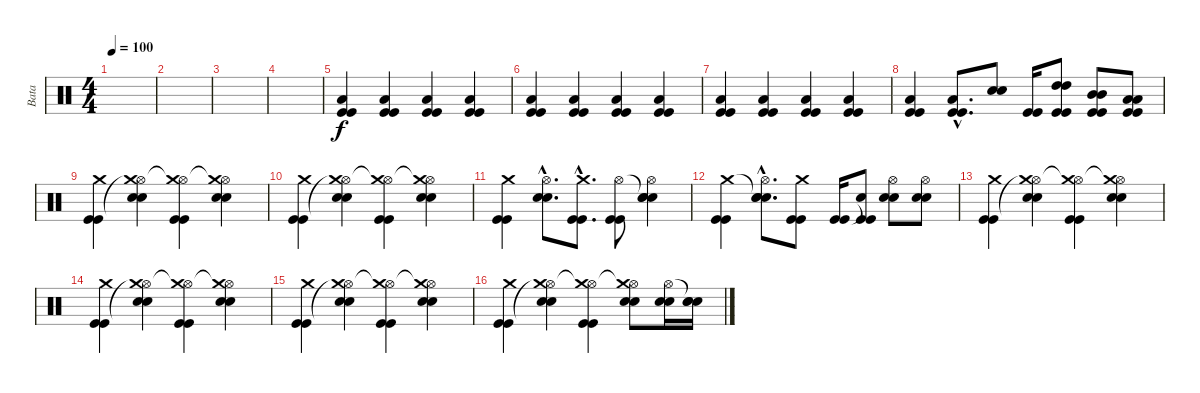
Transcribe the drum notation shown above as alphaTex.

\track ("Bata" "Bata") {instrument percussion}
\staff {score}
\articulation defaults
\ts (4 4)
\tempo 100
\clef neutral
\ks c
|
|
|
|
("Low Floor Tom (hit)" "Kick (hit)" "Kick (hit)").4 ("Low Floor Tom (hit)" "Kick (hit)" "Kick (hit)").4 ("Low Floor Tom (hit)" "Kick (hit)" "Kick (hit)").4 ("Low Floor Tom (hit)" "Kick (hit)" "Kick (hit)").4 |
("Low Floor Tom (hit)" "Kick (hit)" "Kick (hit)").4 ("Low Floor Tom (hit)" "Kick (hit)" "Kick (hit)").4 ("Low Floor Tom (hit)" "Kick (hit)" "Kick (hit)").4 ("Low Floor Tom (hit)" "Kick (hit)" "Kick (hit)").4 |
("Low Floor Tom (hit)" "Kick (hit)" "Kick (hit)").4 ("Low Floor Tom (hit)" "Kick (hit)" "Kick (hit)").4 ("Low Floor Tom (hit)" "Kick (hit)" "Kick (hit)").4 ("Low Floor Tom (hit)" "Kick (hit)" "Kick (hit)").4 |
("Low Floor Tom (hit)" "Kick (hit)" "Kick (hit)").4 ("Low Floor Tom (hit)"{hac} "Kick (hit)"{hac} "Kick (hit)"{hac}).8{d} ("Electric Snare (hit)" "Electric Snare (hit)").8 ("Kick (hit)" "Kick (hit)").16 ("High Tom (hit)" "High Tom (hit)" "Kick (hit)" "Kick (hit)").8 ("Mid Tom (hit)" "Mid Tom (hit)" "Kick (hit)" "Kick (hit)").8 ("Low Tom (hit)" "Low Tom (hit)" "Kick (hit)" "Kick (hit)").8 |
("Crash medium (hit)" "Kick (hit)" "Kick (hit)").4 ("Hi-Hat (open)" "Crash medium (hit)"{t} "Electric Snare (hit)" "Electric Snare (hit)").4 ("Hi-Hat (open)" "Crash medium (hit)"{t} "Kick (hit)" "Kick (hit)").4 ("Hi-Hat (open)" "Crash medium (hit)"{t} "Electric Snare (hit)" "Electric Snare (hit)").4 |
("Crash medium (hit)" "Kick (hit)" "Kick (hit)").4 ("Hi-Hat (open)" "Crash medium (hit)"{t} "Electric Snare (hit)" "Electric Snare (hit)").4 ("Hi-Hat (open)" "Crash medium (hit)"{t} "Kick (hit)" "Kick (hit)").4 ("Hi-Hat (open)" "Crash medium (hit)"{t} "Electric Snare (hit)" "Electric Snare (hit)").4 |
("Crash medium (hit)" "Kick (hit)" "Kick (hit)").4 ("Hi-Hat (open)"{hac} "Electric Snare (hit)"{hac} "Electric Snare (hit)"{hac}).8{d} ("Crash medium (hit)"{hac} "Kick (hit)"{hac} "Kick (hit)"{hac}).8{d} ("Hi-Hat (open)" "Kick (hit)" "Kick (hit)").8 ("Snare (hit)"{t} "Hi-Hat (open)" "Electric Snare (hit)" "Electric Snare (hit)").4 |
("Crash medium (hit)" "Kick (hit)" "Kick (hit)").4 ("Snare (hit)"{hac t} "Hi-Hat (open)"{hac} "Electric Snare (hit)"{hac} "Electric Snare (hit)"{hac}).8{d} ("Crash medium (hit)" "Kick (hit)" "Kick (hit)").8 ("Kick (hit)" "Kick (hit)").16 ("Snare (hit)"{t} "Kick (hit)" "Kick (hit)").8 ("Hi-Hat (open)" "Electric Snare (hit)" "Electric Snare (hit)").8 ("Hi-Hat (open)" "Electric Snare (hit)" "Electric Snare (hit)").8 |
("Crash medium (hit)" "Kick (hit)" "Kick (hit)").4 ("Hi-Hat (open)" "Crash medium (hit)"{t} "Electric Snare (hit)" "Electric Snare (hit)").4 ("Hi-Hat (open)" "Crash medium (hit)"{t} "Kick (hit)" "Kick (hit)").4 ("Hi-Hat (open)" "Crash medium (hit)"{t} "Electric Snare (hit)" "Electric Snare (hit)").4 |
("Crash medium (hit)" "Kick (hit)" "Kick (hit)").4 ("Hi-Hat (open)" "Crash medium (hit)"{t} "Electric Snare (hit)" "Electric Snare (hit)").4 ("Hi-Hat (open)" "Crash medium (hit)"{t} "Kick (hit)" "Kick (hit)").4 ("Hi-Hat (open)" "Crash medium (hit)"{t} "Electric Snare (hit)" "Electric Snare (hit)").4 |
("Crash medium (hit)" "Kick (hit)" "Kick (hit)").4 ("Hi-Hat (open)" "Crash medium (hit)"{t} "Electric Snare (hit)" "Electric Snare (hit)").4 ("Hi-Hat (open)" "Crash medium (hit)"{t} "Kick (hit)" "Kick (hit)").4 ("Hi-Hat (open)" "Crash medium (hit)"{t} "Electric Snare (hit)" "Electric Snare (hit)").4 |
("Crash medium (hit)" "Kick (hit)" "Kick (hit)").4 ("Hi-Hat (open)" "Crash medium (hit)"{t} "Electric Snare (hit)" "Electric Snare (hit)").4 ("Hi-Hat (open)" "Crash medium (hit)"{t} "Kick (hit)" "Kick (hit)").4 ("Hi-Hat (open)" "Crash medium (hit)"{t} "Electric Snare (hit)" "Electric Snare (hit)").8 ("Hi-Hat (open)" "Electric Snare (hit)" "Electric Snare (hit)").16 ("Snare (hit)"{t} "Electric Snare (hit)" "Electric Snare (hit)").16
